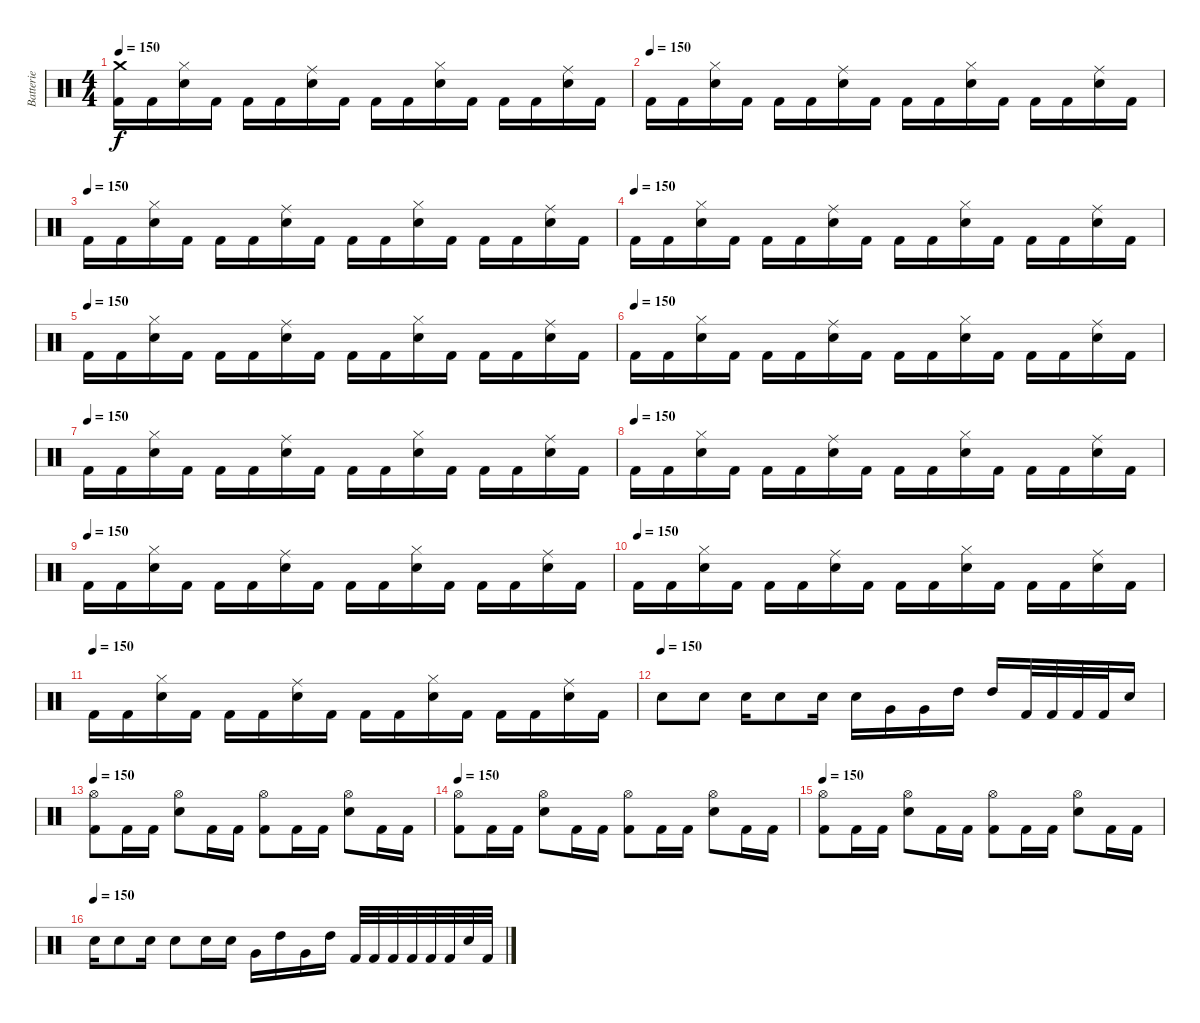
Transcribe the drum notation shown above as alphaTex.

\track ("Batterie" "Batterie") {instrument percussion}
\staff {score}
\articulation defaults
\ts (4 4)
\tempo 150
\clef neutral
\ks c
("Crash medium (hit)" "Kick (hit) 2").16{dy f} "Kick (hit) 2".16 ("Hi-Hat (closed)" "Snare (hit) 2").16 "Kick (hit) 2".16 "Kick (hit) 2".16 "Kick (hit) 2".16 ("Ride (middle)" "Snare (hit) 2").16 "Kick (hit) 2".16 "Kick (hit) 2".16 "Kick (hit) 2".16 ("Hi-Hat (closed)" "Snare (hit) 2").16 "Kick (hit) 2".16 "Kick (hit) 2".16 "Kick (hit) 2".16 ("Ride (middle)" "Snare (hit) 2").16 "Kick (hit) 2".16 |
\tempo (150)
"Kick (hit) 2".16 "Kick (hit) 2".16 ("Hi-Hat (closed)" "Snare (hit) 2").16 "Kick (hit) 2".16 "Kick (hit) 2".16 "Kick (hit) 2".16 ("Ride (middle)" "Snare (hit) 2").16 "Kick (hit) 2".16 "Kick (hit) 2".16 "Kick (hit) 2".16 ("Hi-Hat (closed)" "Snare (hit) 2").16 "Kick (hit) 2".16 "Kick (hit) 2".16 "Kick (hit) 2".16 ("Ride (middle)" "Snare (hit) 2").16 "Kick (hit) 2".16 |
\tempo (150)
"Kick (hit) 2".16 "Kick (hit) 2".16 ("Hi-Hat (closed)" "Snare (hit) 2").16 "Kick (hit) 2".16 "Kick (hit) 2".16 "Kick (hit) 2".16 ("Ride (middle)" "Snare (hit) 2").16 "Kick (hit) 2".16 "Kick (hit) 2".16 "Kick (hit) 2".16 ("Hi-Hat (closed)" "Snare (hit) 2").16 "Kick (hit) 2".16 "Kick (hit) 2".16 "Kick (hit) 2".16 ("Ride (middle)" "Snare (hit) 2").16 "Kick (hit) 2".16 |
\tempo (150)
"Kick (hit) 2".16 "Kick (hit) 2".16 ("Hi-Hat (closed)" "Snare (hit) 2").16 "Kick (hit) 2".16 "Kick (hit) 2".16 "Kick (hit) 2".16 ("Ride (middle)" "Snare (hit) 2").16 "Kick (hit) 2".16 "Kick (hit) 2".16 "Kick (hit) 2".16 ("Hi-Hat (closed)" "Snare (hit) 2").16 "Kick (hit) 2".16 "Kick (hit) 2".16 "Kick (hit) 2".16 ("Ride (middle)" "Snare (hit) 2").16 "Kick (hit) 2".16 |
\tempo (150)
"Kick (hit) 2".16 "Kick (hit) 2".16 ("Hi-Hat (closed)" "Snare (hit) 2").16 "Kick (hit) 2".16 "Kick (hit) 2".16 "Kick (hit) 2".16 ("Ride (middle)" "Snare (hit) 2").16 "Kick (hit) 2".16 "Kick (hit) 2".16 "Kick (hit) 2".16 ("Hi-Hat (closed)" "Snare (hit) 2").16 "Kick (hit) 2".16 "Kick (hit) 2".16 "Kick (hit) 2".16 ("Ride (middle)" "Snare (hit) 2").16 "Kick (hit) 2".16 |
\tempo (150)
"Kick (hit) 2".16 "Kick (hit) 2".16 ("Hi-Hat (closed)" "Snare (hit) 2").16 "Kick (hit) 2".16 "Kick (hit) 2".16 "Kick (hit) 2".16 ("Ride (middle)" "Snare (hit) 2").16 "Kick (hit) 2".16 "Kick (hit) 2".16 "Kick (hit) 2".16 ("Hi-Hat (closed)" "Snare (hit) 2").16 "Kick (hit) 2".16 "Kick (hit) 2".16 "Kick (hit) 2".16 ("Ride (middle)" "Snare (hit) 2").16 "Kick (hit) 2".16 |
\tempo (150)
"Kick (hit) 2".16 "Kick (hit) 2".16 ("Hi-Hat (closed)" "Snare (hit) 2").16 "Kick (hit) 2".16 "Kick (hit) 2".16 "Kick (hit) 2".16 ("Ride (middle)" "Snare (hit) 2").16 "Kick (hit) 2".16 "Kick (hit) 2".16 "Kick (hit) 2".16 ("Hi-Hat (closed)" "Snare (hit) 2").16 "Kick (hit) 2".16 "Kick (hit) 2".16 "Kick (hit) 2".16 ("Ride (middle)" "Snare (hit) 2").16 "Kick (hit) 2".16 |
\tempo (150)
"Kick (hit) 2".16 "Kick (hit) 2".16 ("Hi-Hat (closed)" "Snare (hit) 2").16 "Kick (hit) 2".16 "Kick (hit) 2".16 "Kick (hit) 2".16 ("Ride (middle)" "Snare (hit) 2").16 "Kick (hit) 2".16 "Kick (hit) 2".16 "Kick (hit) 2".16 ("Hi-Hat (closed)" "Snare (hit) 2").16 "Kick (hit) 2".16 "Kick (hit) 2".16 "Kick (hit) 2".16 ("Ride (middle)" "Snare (hit) 2").16 "Kick (hit) 2".16 |
\tempo (150)
"Kick (hit) 2".16 "Kick (hit) 2".16 ("Hi-Hat (closed)" "Snare (hit) 2").16 "Kick (hit) 2".16 "Kick (hit) 2".16 "Kick (hit) 2".16 ("Ride (middle)" "Snare (hit) 2").16 "Kick (hit) 2".16 "Kick (hit) 2".16 "Kick (hit) 2".16 ("Hi-Hat (closed)" "Snare (hit) 2").16 "Kick (hit) 2".16 "Kick (hit) 2".16 "Kick (hit) 2".16 ("Ride (middle)" "Snare (hit) 2").16 "Kick (hit) 2".16 |
\tempo (150)
"Kick (hit) 2".16 "Kick (hit) 2".16 ("Hi-Hat (closed)" "Snare (hit) 2").16 "Kick (hit) 2".16 "Kick (hit) 2".16 "Kick (hit) 2".16 ("Ride (middle)" "Snare (hit) 2").16 "Kick (hit) 2".16 "Kick (hit) 2".16 "Kick (hit) 2".16 ("Hi-Hat (closed)" "Snare (hit) 2").16 "Kick (hit) 2".16 "Kick (hit) 2".16 "Kick (hit) 2".16 ("Ride (middle)" "Snare (hit) 2").16 "Kick (hit) 2".16 |
\tempo (150)
"Kick (hit) 2".16 "Kick (hit) 2".16 ("Hi-Hat (closed)" "Snare (hit) 2").16 "Kick (hit) 2".16 "Kick (hit) 2".16 "Kick (hit) 2".16 ("Ride (middle)" "Snare (hit) 2").16 "Kick (hit) 2".16 "Kick (hit) 2".16 "Kick (hit) 2".16 ("Hi-Hat (closed)" "Snare (hit) 2").16 "Kick (hit) 2".16 "Kick (hit) 2".16 "Kick (hit) 2".16 ("Ride (middle)" "Snare (hit) 2").16 "Kick (hit) 2".16 |
\tempo (150)
"Snare (hit) 2".8 "Snare (hit) 2".8 "Snare (hit) 2".16 "Snare (hit) 2".8 "Snare (hit) 2".16 "Snare (hit) 2".16 "Very Low Tom (hit)".16 "Very Low Tom (hit)".16 "High Tom (hit)".16 "High Tom (hit)".16 "Kick (hit) 2".32 "Kick (hit) 2".32 "Kick (hit) 2".32 "Kick (hit) 2".32 "Snare (hit) 2".16 |
\tempo 150
("Hi-Hat (open)" "Kick (hit) 2").8 "Kick (hit) 2".16 "Kick (hit) 2".16 ("Hi-Hat (open)" "Snare (hit) 2").8 "Kick (hit) 2".16 "Kick (hit) 2".16 ("Hi-Hat (open)" "Kick (hit) 2").8 "Kick (hit) 2".16 "Kick (hit) 2".16 ("Hi-Hat (open)" "Snare (hit) 2").8 "Kick (hit) 2".16 "Kick (hit) 2".16 |
\tempo 150
("Hi-Hat (open)" "Kick (hit) 2").8 "Kick (hit) 2".16 "Kick (hit) 2".16 ("Hi-Hat (open)" "Snare (hit) 2").8 "Kick (hit) 2".16 "Kick (hit) 2".16 ("Hi-Hat (open)" "Kick (hit) 2").8 "Kick (hit) 2".16 "Kick (hit) 2".16 ("Hi-Hat (open)" "Snare (hit) 2").8 "Kick (hit) 2".16 "Kick (hit) 2".16 |
\tempo 150
("Hi-Hat (open)" "Kick (hit) 2").8 "Kick (hit) 2".16 "Kick (hit) 2".16 ("Hi-Hat (open)" "Snare (hit) 2").8 "Kick (hit) 2".16 "Kick (hit) 2".16 ("Hi-Hat (open)" "Kick (hit) 2").8 "Kick (hit) 2".16 "Kick (hit) 2".16 ("Hi-Hat (open)" "Snare (hit) 2").8 "Kick (hit) 2".16 "Kick (hit) 2".16 |
\tempo (150)
"Snare (hit) 2".16 "Snare (hit) 2".8 "Snare (hit) 2".16 "Snare (hit) 2".8 "Snare (hit) 2".16 "Snare (hit) 2".16 "Very Low Tom (hit)".16 "High Tom (hit)".16 "Very Low Tom (hit)".16 "High Tom (hit)".16 "Kick (hit) 2".32 "Kick (hit) 2".32 "Kick (hit) 2".32 "Kick (hit) 2".32 "Kick (hit) 2".32 "Kick (hit) 2".32 "Snare (hit) 2".32 "Kick (hit) 2".32
